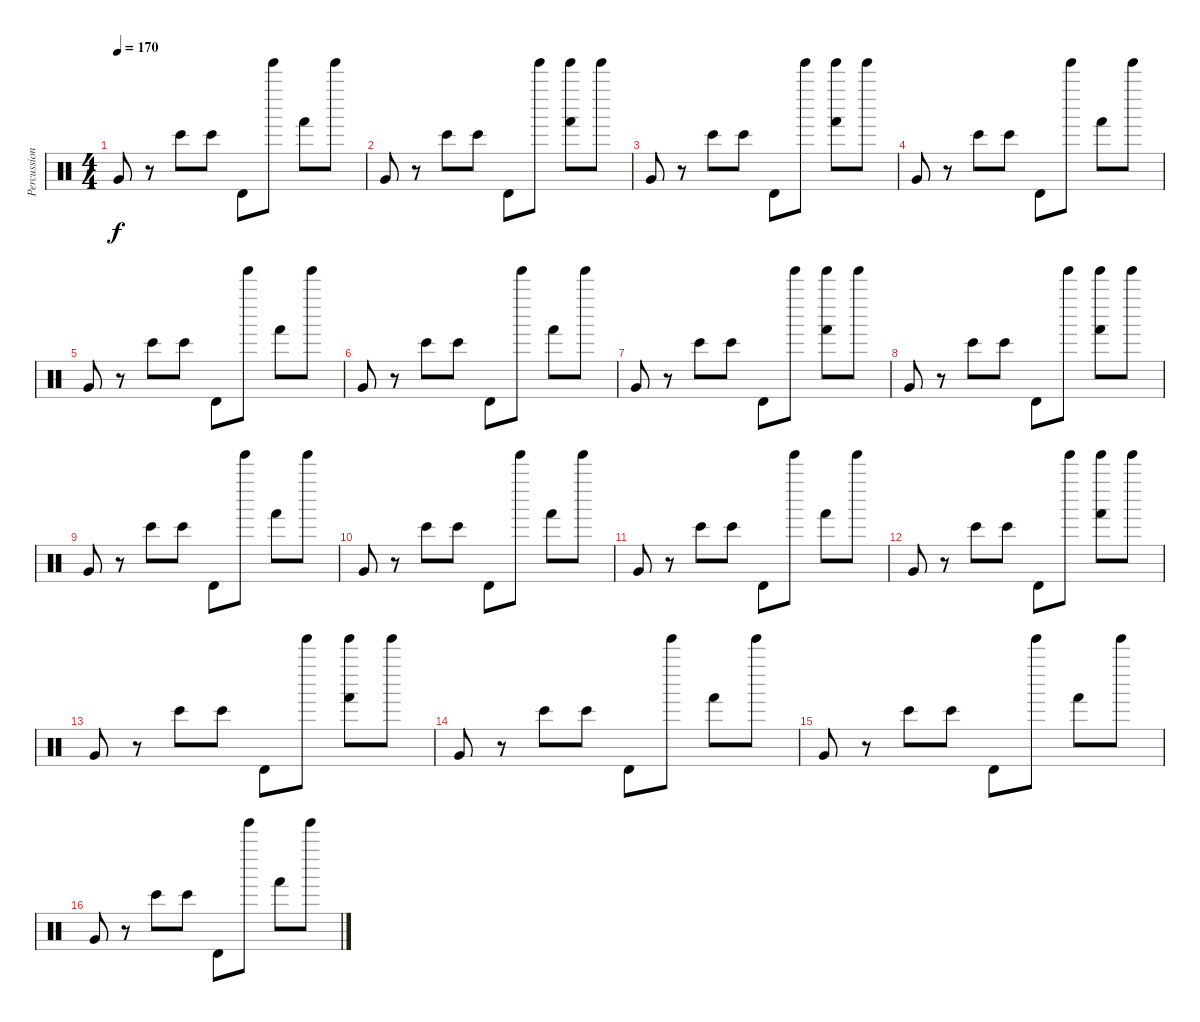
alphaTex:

\track ("Percussion" "Percussion") {instrument percussion}
\staff {score}
\articulation defaults
\ts (4 4)
\tempo 170
\clef neutral
\ks c "Very Low Tom (hit)".8{dy f}
r.8 "Bongo High (hit)".8 "Bongo High (hit)".8 "Timbale high (hit)".8 "Tinkle Bell (hit)".8 "Hand (hit)".8 "Tinkle Bell (hit)".8 |
"Very Low Tom (hit)".8 r.8 "Bongo High (hit)".8 "Bongo High (hit)".8 "Timbale high (hit)".8 "Tinkle Bell (hit)".8 ("Hand (hit)" "Tinkle Bell (hit)").8 "Tinkle Bell (hit)".8 |
"Very Low Tom (hit)".8 r.8 "Bongo High (hit)".8 "Bongo High (hit)".8 "Timbale high (hit)".8 "Tinkle Bell (hit)".8 ("Hand (hit)" "Tinkle Bell (hit)").8 "Tinkle Bell (hit)".8 |
"Very Low Tom (hit)".8 r.8 "Bongo High (hit)".8 "Bongo High (hit)".8 "Timbale high (hit)".8 "Tinkle Bell (hit)".8 "Hand (hit)".8 "Tinkle Bell (hit)".8 |
"Very Low Tom (hit)".8 r.8 "Bongo High (hit)".8 "Bongo High (hit)".8 "Timbale high (hit)".8 "Tinkle Bell (hit)".8 "Hand (hit)".8 "Tinkle Bell (hit)".8 |
"Very Low Tom (hit)".8 r.8 "Bongo High (hit)".8 "Bongo High (hit)".8 "Timbale high (hit)".8 "Tinkle Bell (hit)".8 "Hand (hit)".8 "Tinkle Bell (hit)".8 |
"Very Low Tom (hit)".8 r.8 "Bongo High (hit)".8 "Bongo High (hit)".8 "Timbale high (hit)".8 "Tinkle Bell (hit)".8 ("Hand (hit)" "Tinkle Bell (hit)").8 "Tinkle Bell (hit)".8 |
"Very Low Tom (hit)".8 r.8 "Bongo High (hit)".8 "Bongo High (hit)".8 "Timbale high (hit)".8 "Tinkle Bell (hit)".8 ("Hand (hit)" "Tinkle Bell (hit)").8 "Tinkle Bell (hit)".8 |
"Very Low Tom (hit)".8 r.8 "Bongo High (hit)".8 "Bongo High (hit)".8 "Timbale high (hit)".8 "Tinkle Bell (hit)".8 "Hand (hit)".8 "Tinkle Bell (hit)".8 |
"Very Low Tom (hit)".8 r.8 "Bongo High (hit)".8 "Bongo High (hit)".8 "Timbale high (hit)".8 "Tinkle Bell (hit)".8 "Hand (hit)".8 "Tinkle Bell (hit)".8 |
"Very Low Tom (hit)".8 r.8 "Bongo High (hit)".8 "Bongo High (hit)".8 "Timbale high (hit)".8 "Tinkle Bell (hit)".8 "Hand (hit)".8 "Tinkle Bell (hit)".8 |
"Very Low Tom (hit)".8 r.8 "Bongo High (hit)".8 "Bongo High (hit)".8 "Timbale high (hit)".8 "Tinkle Bell (hit)".8 ("Hand (hit)" "Tinkle Bell (hit)").8 "Tinkle Bell (hit)".8 |
"Very Low Tom (hit)".8 r.8 "Bongo High (hit)".8 "Bongo High (hit)".8 "Timbale high (hit)".8 "Tinkle Bell (hit)".8 ("Hand (hit)" "Tinkle Bell (hit)").8 "Tinkle Bell (hit)".8 |
"Very Low Tom (hit)".8 r.8 "Bongo High (hit)".8 "Bongo High (hit)".8 "Timbale high (hit)".8 "Tinkle Bell (hit)".8 "Hand (hit)".8 "Tinkle Bell (hit)".8 |
"Very Low Tom (hit)".8 r.8 "Bongo High (hit)".8 "Bongo High (hit)".8 "Timbale high (hit)".8 "Tinkle Bell (hit)".8 "Hand (hit)".8 "Tinkle Bell (hit)".8 |
"Very Low Tom (hit)".8 r.8 "Bongo High (hit)".8 "Bongo High (hit)".8 "Timbale high (hit)".8 "Tinkle Bell (hit)".8 "Hand (hit)".8 "Tinkle Bell (hit)".8
